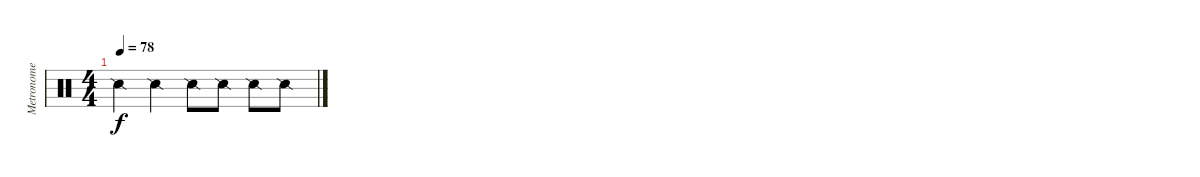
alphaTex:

\track ("Metronome" "Metronome") {instrument percussion}
\staff {score}
\articulation defaults
\ts (4 4)
\tempo 78
\clef neutral
\ks c "Snare (side stick) 2".4{dy f} "Snare (side stick) 2".4 "Snare (side stick) 2".8 "Snare (side stick) 2".8 "Snare (side stick) 2".8 "Snare (side stick) 2".8
